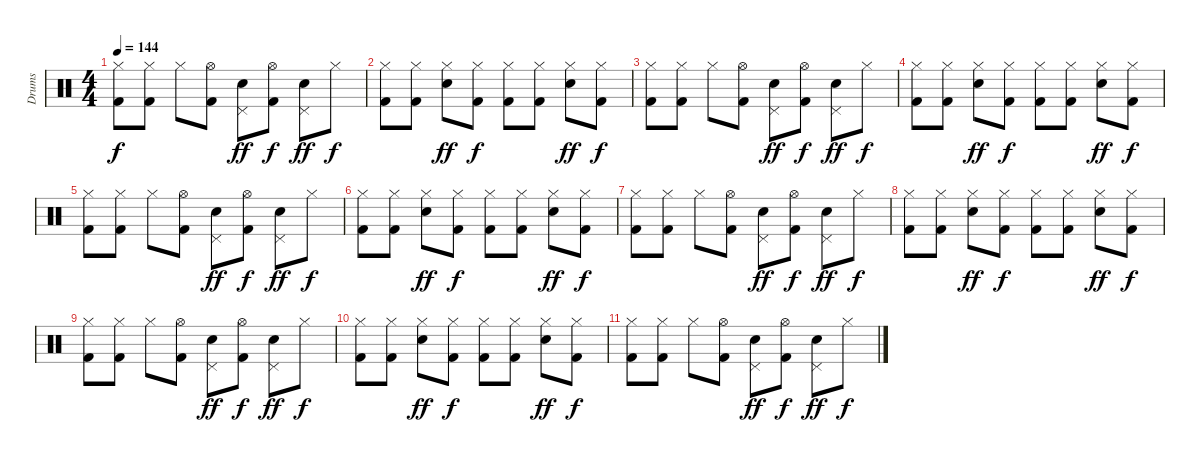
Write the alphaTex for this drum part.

\track ("Drums" "Drums") {instrument percussion}
\staff {score}
\articulation defaults
\ts (4 4)
\tempo 144
\clef neutral
\ks c
("Hi-Hat (closed)" "Kick (hit) 2").8{dy f} ("Hi-Hat (closed)" "Kick (hit) 2").8 "Hi-Hat (closed)".8 ("Hi-Hat (open)" "Kick (hit) 2").8 ("Pedal Hi-Hat (hit)" "Electric Snare (hit)").8{dy ff} ("Hi-Hat (open)" "Kick (hit) 2").8{dy f} ("Pedal Hi-Hat (hit)" "Electric Snare (hit)").8{dy ff} "Hi-Hat (closed)".8{dy f} |
("Hi-Hat (closed)" "Kick (hit) 2").8{volume 8} ("Hi-Hat (closed)" "Kick (hit) 2").8 ("Hi-Hat (closed)" "Electric Snare (hit)").8{dy ff} ("Hi-Hat (closed)" "Kick (hit) 2").8{dy f} ("Hi-Hat (closed)" "Kick (hit) 2").8 ("Hi-Hat (closed)" "Kick (hit) 2").8 ("Hi-Hat (closed)" "Electric Snare (hit)").8{dy ff} ("Hi-Hat (closed)" "Kick (hit) 2").8{dy f} |
("Hi-Hat (closed)" "Kick (hit) 2").8 ("Hi-Hat (closed)" "Kick (hit) 2").8 "Hi-Hat (closed)".8 ("Hi-Hat (open)" "Kick (hit) 2").8 ("Pedal Hi-Hat (hit)" "Electric Snare (hit)").8{dy ff} ("Hi-Hat (open)" "Kick (hit) 2").8{dy f} ("Pedal Hi-Hat (hit)" "Electric Snare (hit)").8{dy ff} "Hi-Hat (closed)".8{dy f} |
("Hi-Hat (closed)" "Kick (hit) 2").8{volume 6} ("Hi-Hat (closed)" "Kick (hit) 2").8 ("Hi-Hat (closed)" "Electric Snare (hit)").8{dy ff} ("Hi-Hat (closed)" "Kick (hit) 2").8{dy f} ("Hi-Hat (closed)" "Kick (hit) 2").8 ("Hi-Hat (closed)" "Kick (hit) 2").8 ("Hi-Hat (closed)" "Electric Snare (hit)").8{dy ff} ("Hi-Hat (closed)" "Kick (hit) 2").8{dy f} |
("Hi-Hat (closed)" "Kick (hit) 2").8 ("Hi-Hat (closed)" "Kick (hit) 2").8 "Hi-Hat (closed)".8 ("Hi-Hat (open)" "Kick (hit) 2").8 ("Pedal Hi-Hat (hit)" "Electric Snare (hit)").8{dy ff} ("Hi-Hat (open)" "Kick (hit) 2").8{dy f} ("Pedal Hi-Hat (hit)" "Electric Snare (hit)").8{dy ff} "Hi-Hat (closed)".8{dy f} |
("Hi-Hat (closed)" "Kick (hit) 2").8{volume 4} ("Hi-Hat (closed)" "Kick (hit) 2").8 ("Hi-Hat (closed)" "Electric Snare (hit)").8{dy ff} ("Hi-Hat (closed)" "Kick (hit) 2").8{dy f} ("Hi-Hat (closed)" "Kick (hit) 2").8 ("Hi-Hat (closed)" "Kick (hit) 2").8 ("Hi-Hat (closed)" "Electric Snare (hit)").8{dy ff} ("Hi-Hat (closed)" "Kick (hit) 2").8{dy f} |
("Hi-Hat (closed)" "Kick (hit) 2").8 ("Hi-Hat (closed)" "Kick (hit) 2").8 "Hi-Hat (closed)".8 ("Hi-Hat (open)" "Kick (hit) 2").8 ("Pedal Hi-Hat (hit)" "Electric Snare (hit)").8{dy ff} ("Hi-Hat (open)" "Kick (hit) 2").8{dy f} ("Pedal Hi-Hat (hit)" "Electric Snare (hit)").8{dy ff} "Hi-Hat (closed)".8{dy f} |
("Hi-Hat (closed)" "Kick (hit) 2").8{volume 2} ("Hi-Hat (closed)" "Kick (hit) 2").8 ("Hi-Hat (closed)" "Electric Snare (hit)").8{dy ff} ("Hi-Hat (closed)" "Kick (hit) 2").8{dy f} ("Hi-Hat (closed)" "Kick (hit) 2").8 ("Hi-Hat (closed)" "Kick (hit) 2").8 ("Hi-Hat (closed)" "Electric Snare (hit)").8{dy ff} ("Hi-Hat (closed)" "Kick (hit) 2").8{dy f} |
("Hi-Hat (closed)" "Kick (hit) 2").8 ("Hi-Hat (closed)" "Kick (hit) 2").8 "Hi-Hat (closed)".8 ("Hi-Hat (open)" "Kick (hit) 2").8 ("Pedal Hi-Hat (hit)" "Electric Snare (hit)").8{dy ff} ("Hi-Hat (open)" "Kick (hit) 2").8{dy f} ("Pedal Hi-Hat (hit)" "Electric Snare (hit)").8{dy ff} "Hi-Hat (closed)".8{dy f} |
("Hi-Hat (closed)" "Kick (hit) 2").8{volume 0} ("Hi-Hat (closed)" "Kick (hit) 2").8 ("Hi-Hat (closed)" "Electric Snare (hit)").8{dy ff} ("Hi-Hat (closed)" "Kick (hit) 2").8{dy f} ("Hi-Hat (closed)" "Kick (hit) 2").8 ("Hi-Hat (closed)" "Kick (hit) 2").8 ("Hi-Hat (closed)" "Electric Snare (hit)").8{dy ff} ("Hi-Hat (closed)" "Kick (hit) 2").8{dy f} |
("Hi-Hat (closed)" "Kick (hit) 2").8 ("Hi-Hat (closed)" "Kick (hit) 2").8 "Hi-Hat (closed)".8 ("Hi-Hat (open)" "Kick (hit) 2").8 ("Pedal Hi-Hat (hit)" "Electric Snare (hit)").8{dy ff} ("Hi-Hat (open)" "Kick (hit) 2").8{dy f} ("Pedal Hi-Hat (hit)" "Electric Snare (hit)").8{dy ff} "Hi-Hat (closed)".8{dy f}
